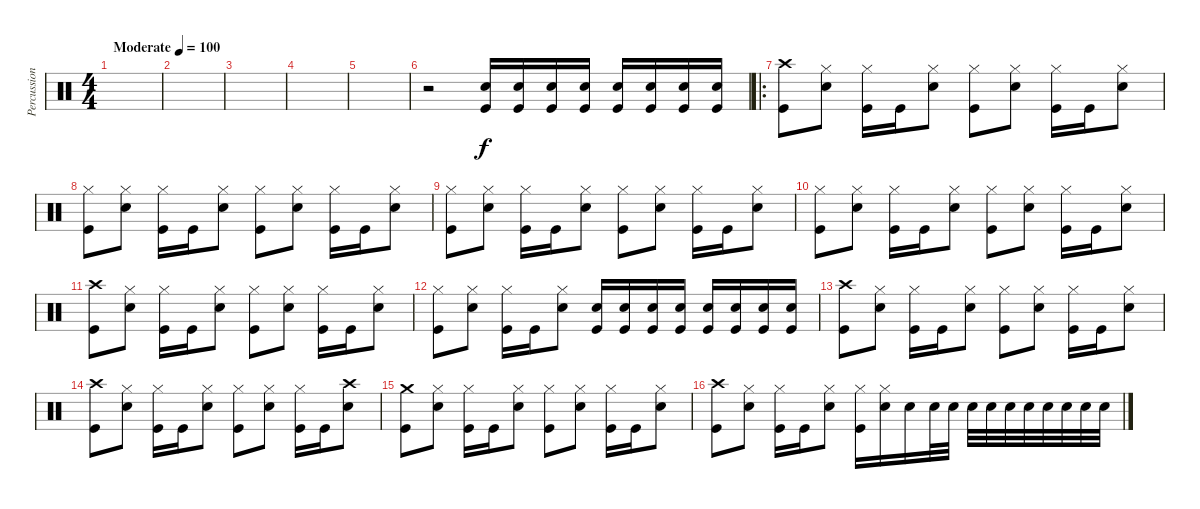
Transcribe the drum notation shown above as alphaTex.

\track ("Percussion" "Percussion") {instrument percussion}
\staff {score}
\articulation defaults
\ts (4 4)
\tempo (100 "Moderate")
\clef neutral
\ks c
|
|
|
|
|
r.2 ("Snare (hit) 2" "Kick (hit)").16 ("Snare (hit) 2" "Kick (hit)").16 ("Snare (hit) 2" "Kick (hit)").16 ("Snare (hit) 2" "Kick (hit)").16 ("Snare (hit) 2" "Kick (hit)").16 ("Snare (hit) 2" "Kick (hit)").16 ("Snare (hit) 2" "Kick (hit)").16 ("Snare (hit) 2" "Kick (hit)").16 |
\ro
("Crash high (hit)" "Kick (hit)").8 ("Hi-Hat (closed)" "Snare (hit) 2").8 ("Hi-Hat (closed)" "Kick (hit)").16 "Kick (hit)".16 ("Hi-Hat (closed)" "Snare (hit) 2").8 ("Hi-Hat (closed)" "Kick (hit)").8 ("Hi-Hat (closed)" "Snare (hit) 2").8 ("Hi-Hat (closed)" "Kick (hit)").16 "Kick (hit)".16 ("Hi-Hat (closed)" "Snare (hit) 2").8 |
("Hi-Hat (closed)" "Kick (hit)").8 ("Hi-Hat (closed)" "Snare (hit) 2").8 ("Hi-Hat (closed)" "Kick (hit)").16 "Kick (hit)".16 ("Hi-Hat (closed)" "Snare (hit) 2").8 ("Hi-Hat (closed)" "Kick (hit)").8 ("Hi-Hat (closed)" "Snare (hit) 2").8 ("Hi-Hat (closed)" "Kick (hit)").16 "Kick (hit)".16 ("Hi-Hat (closed)" "Snare (hit) 2").8 |
("Hi-Hat (closed)" "Kick (hit)").8 ("Hi-Hat (closed)" "Snare (hit) 2").8 ("Hi-Hat (closed)" "Kick (hit)").16 "Kick (hit)".16 ("Hi-Hat (closed)" "Snare (hit) 2").8 ("Hi-Hat (closed)" "Kick (hit)").8 ("Hi-Hat (closed)" "Snare (hit) 2").8 ("Hi-Hat (closed)" "Kick (hit)").16 "Kick (hit)".16 ("Hi-Hat (closed)" "Snare (hit) 2").8 |
("Hi-Hat (closed)" "Kick (hit)").8 ("Hi-Hat (closed)" "Snare (hit) 2").8 ("Hi-Hat (closed)" "Kick (hit)").16 "Kick (hit)".16 ("Hi-Hat (closed)" "Snare (hit) 2").8 ("Hi-Hat (closed)" "Kick (hit)").8 ("Hi-Hat (closed)" "Snare (hit) 2").8 ("Hi-Hat (closed)" "Kick (hit)").16 "Kick (hit)".16 ("Hi-Hat (closed)" "Snare (hit) 2").8 |
("Crash high (hit)" "Kick (hit)").8 ("Hi-Hat (closed)" "Snare (hit) 2").8 ("Hi-Hat (closed)" "Kick (hit)").16 "Kick (hit)".16 ("Hi-Hat (closed)" "Snare (hit) 2").8 ("Hi-Hat (closed)" "Kick (hit)").8 ("Hi-Hat (closed)" "Snare (hit) 2").8 ("Hi-Hat (closed)" "Kick (hit)").16 "Kick (hit)".16 ("Hi-Hat (closed)" "Snare (hit) 2").8 |
("Hi-Hat (closed)" "Kick (hit)").8 ("Hi-Hat (closed)" "Snare (hit) 2").8 ("Hi-Hat (closed)" "Kick (hit)").16 "Kick (hit)".16 ("Hi-Hat (closed)" "Snare (hit) 2").8 ("Snare (hit) 2" "Kick (hit)").16 ("Snare (hit) 2" "Kick (hit)").16 ("Snare (hit) 2" "Kick (hit)").16 ("Snare (hit) 2" "Kick (hit)").16 ("Snare (hit) 2" "Kick (hit)").16 ("Snare (hit) 2" "Kick (hit)").16 ("Snare (hit) 2" "Kick (hit)").16 ("Snare (hit) 2" "Kick (hit)").16 |
("Crash high (hit)" "Kick (hit)").8 ("Hi-Hat (closed)" "Snare (hit) 2").8 ("Hi-Hat (closed)" "Kick (hit)").16 "Kick (hit)".16 ("Hi-Hat (closed)" "Snare (hit) 2").8 ("Hi-Hat (closed)" "Kick (hit)").8 ("Hi-Hat (closed)" "Snare (hit) 2").8 ("Hi-Hat (closed)" "Kick (hit)").16 "Kick (hit)".16 ("Hi-Hat (closed)" "Snare (hit) 2").8 |
("Crash high (hit)" "Kick (hit)").8 ("Hi-Hat (closed)" "Snare (hit) 2").8 ("Hi-Hat (closed)" "Kick (hit)").16 "Kick (hit)".16 ("Hi-Hat (closed)" "Snare (hit) 2").8 ("Hi-Hat (closed)" "Kick (hit)").8 ("Hi-Hat (closed)" "Snare (hit) 2").8 ("Hi-Hat (closed)" "Kick (hit)").16 "Kick (hit)".16 ("Crash high (hit)" "Snare (hit) 2").8 |
("Crash medium (hit)" "Kick (hit)").8 ("Hi-Hat (closed)" "Snare (hit) 2").8 ("Hi-Hat (closed)" "Kick (hit)").16 "Kick (hit)".16 ("Hi-Hat (closed)" "Snare (hit) 2").8 ("Hi-Hat (closed)" "Kick (hit)").8 ("Hi-Hat (closed)" "Snare (hit) 2").8 ("Hi-Hat (closed)" "Kick (hit)").16 "Kick (hit)".16 ("Hi-Hat (closed)" "Snare (hit) 2").8 |
("Crash high (hit)" "Kick (hit)").8 ("Hi-Hat (closed)" "Snare (hit) 2").8 ("Hi-Hat (closed)" "Kick (hit)").16 "Kick (hit)".16 ("Hi-Hat (closed)" "Snare (hit) 2").8 ("Hi-Hat (closed)" "Kick (hit)").16 ("Hi-Hat (closed)" "Snare (hit) 2").16 "Snare (hit) 2".16 "Snare (hit) 2".32 "Snare (hit) 2".32 "Snare (hit) 2".32 "Snare (hit) 2".32 "Snare (hit) 2".32 "Snare (hit) 2".32 "Snare (hit) 2".32 "Snare (hit) 2".32 "Snare (hit) 2".32 "Snare (hit) 2".32
